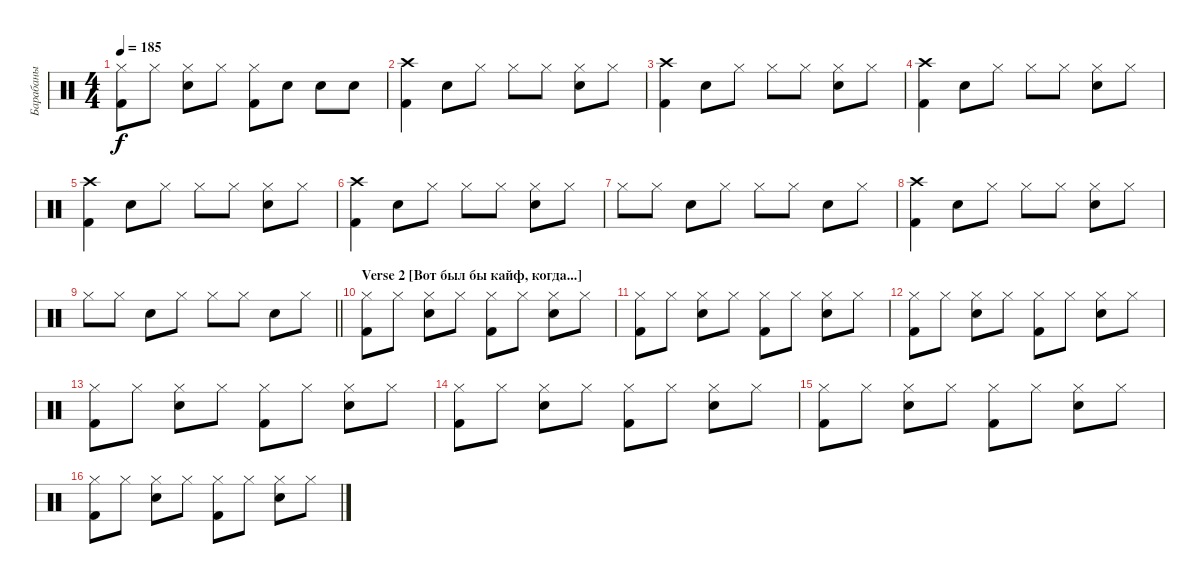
\track ("Барабаны" "Барабаны") {instrument percussion}
\staff {score}
\articulation defaults
\ts (4 4)
\tempo 185
\clef neutral
\ks c
("Hi-Hat (closed)" "Kick (hit) 2").8{dy f} "Hi-Hat (closed)".8 ("Hi-Hat (closed)" "Snare (hit) 2").8 "Hi-Hat (closed)".8 ("Hi-Hat (closed)" "Kick (hit) 2").8 "Snare (hit) 2".8 "Snare (hit) 2".8 "Snare (hit) 2".8 |
("Crash high (hit)" "Kick (hit) 2").4 "Snare (hit) 2".8 "Hi-Hat (closed)".8 "Hi-Hat (closed)".8 "Hi-Hat (closed)".8 ("Hi-Hat (closed)" "Snare (hit) 2").8 "Hi-Hat (closed)".8 |
("Crash high (hit)" "Kick (hit) 2").4 "Snare (hit) 2".8 "Hi-Hat (closed)".8 "Hi-Hat (closed)".8 "Hi-Hat (closed)".8 ("Hi-Hat (closed)" "Snare (hit) 2").8 "Hi-Hat (closed)".8 |
("Crash high (hit)" "Kick (hit) 2").4 "Snare (hit) 2".8 "Hi-Hat (closed)".8 "Hi-Hat (closed)".8 "Hi-Hat (closed)".8 ("Hi-Hat (closed)" "Snare (hit) 2").8 "Hi-Hat (closed)".8 |
("Crash high (hit)" "Kick (hit) 2").4 "Snare (hit) 2".8 "Hi-Hat (closed)".8 "Hi-Hat (closed)".8 "Hi-Hat (closed)".8 ("Hi-Hat (closed)" "Snare (hit) 2").8 "Hi-Hat (closed)".8 |
("Crash high (hit)" "Kick (hit) 2").4 "Snare (hit) 2".8 "Hi-Hat (closed)".8 "Hi-Hat (closed)".8 "Hi-Hat (closed)".8 ("Hi-Hat (closed)" "Snare (hit) 2").8 "Hi-Hat (closed)".8 |
"Hi-Hat (closed)".8 "Hi-Hat (closed)".8 "Snare (hit) 2".8 "Hi-Hat (closed)".8 "Hi-Hat (closed)".8 "Hi-Hat (closed)".8 "Snare (hit) 2".8 "Hi-Hat (closed)".8 |
("Crash high (hit)" "Kick (hit) 2").4 "Snare (hit) 2".8 "Hi-Hat (closed)".8 "Hi-Hat (closed)".8 "Hi-Hat (closed)".8 ("Hi-Hat (closed)" "Snare (hit) 2").8 "Hi-Hat (closed)".8 |
\barLineRight lightlight "Hi-Hat (closed)".8 "Hi-Hat (closed)".8 "Snare (hit) 2".8 "Hi-Hat (closed)".8 "Hi-Hat (closed)".8 "Hi-Hat (closed)".8 "Snare (hit) 2".8 "Hi-Hat (closed)".8
|
\section ("" "Verse 2 [Вот был бы кайф, когда...]")
("Hi-Hat (closed)" "Kick (hit) 2").8 "Hi-Hat (closed)".8 ("Hi-Hat (closed)" "Snare (hit) 2").8 "Hi-Hat (closed)".8 ("Hi-Hat (closed)" "Kick (hit) 2").8 "Hi-Hat (closed)".8 ("Hi-Hat (closed)" "Snare (hit) 2").8 "Hi-Hat (closed)".8 |
("Hi-Hat (closed)" "Kick (hit) 2").8 "Hi-Hat (closed)".8 ("Hi-Hat (closed)" "Snare (hit) 2").8 "Hi-Hat (closed)".8 ("Hi-Hat (closed)" "Kick (hit) 2").8 "Hi-Hat (closed)".8 ("Hi-Hat (closed)" "Snare (hit) 2").8 "Hi-Hat (closed)".8 |
("Hi-Hat (closed)" "Kick (hit) 2").8 "Hi-Hat (closed)".8 ("Hi-Hat (closed)" "Snare (hit) 2").8 "Hi-Hat (closed)".8 ("Hi-Hat (closed)" "Kick (hit) 2").8 "Hi-Hat (closed)".8 ("Hi-Hat (closed)" "Snare (hit) 2").8 "Hi-Hat (closed)".8 |
("Hi-Hat (closed)" "Kick (hit) 2").8 "Hi-Hat (closed)".8 ("Hi-Hat (closed)" "Snare (hit) 2").8 "Hi-Hat (closed)".8 ("Hi-Hat (closed)" "Kick (hit) 2").8 "Hi-Hat (closed)".8 ("Hi-Hat (closed)" "Snare (hit) 2").8 "Hi-Hat (closed)".8 |
("Hi-Hat (closed)" "Kick (hit) 2").8 "Hi-Hat (closed)".8 ("Hi-Hat (closed)" "Snare (hit) 2").8 "Hi-Hat (closed)".8 ("Hi-Hat (closed)" "Kick (hit) 2").8 "Hi-Hat (closed)".8 ("Hi-Hat (closed)" "Snare (hit) 2").8 "Hi-Hat (closed)".8 |
("Hi-Hat (closed)" "Kick (hit) 2").8 "Hi-Hat (closed)".8 ("Hi-Hat (closed)" "Snare (hit) 2").8 "Hi-Hat (closed)".8 ("Hi-Hat (closed)" "Kick (hit) 2").8 "Hi-Hat (closed)".8 ("Hi-Hat (closed)" "Snare (hit) 2").8 "Hi-Hat (closed)".8 |
("Hi-Hat (closed)" "Kick (hit) 2").8 "Hi-Hat (closed)".8 ("Hi-Hat (closed)" "Snare (hit) 2").8 "Hi-Hat (closed)".8 ("Hi-Hat (closed)" "Kick (hit) 2").8 "Hi-Hat (closed)".8 ("Hi-Hat (closed)" "Snare (hit) 2").8 "Hi-Hat (closed)".8
